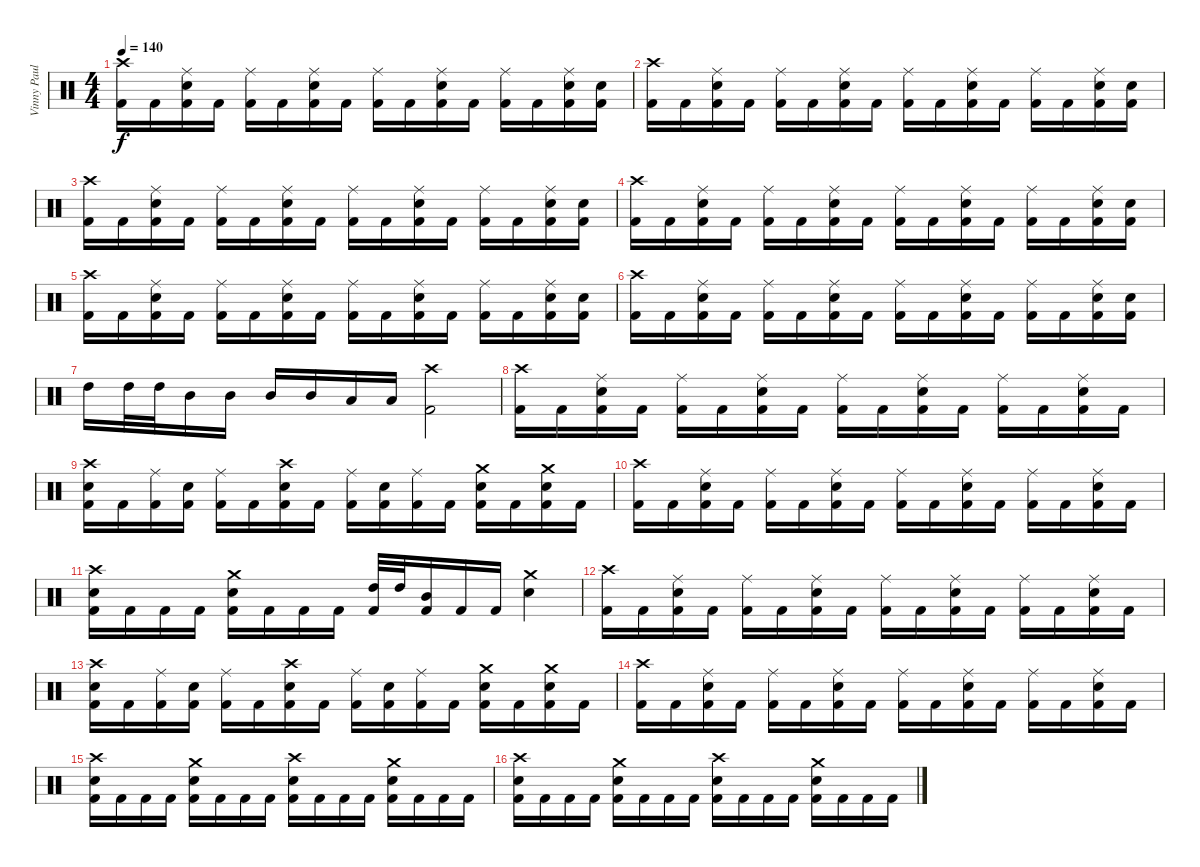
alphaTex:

\track ("Vinny Paul" "Vinny Paul") {instrument percussion}
\staff {score}
\articulation defaults
\ts (4 4)
\tempo 140
\clef neutral
\ks c
("Crash high (hit)" "Kick (hit) 2").16{dy f} "Kick (hit) 2".16 ("Ride (middle)" "Snare (hit) 2" "Kick (hit) 2").16 "Kick (hit) 2".16 ("Ride (middle)" "Kick (hit) 2").16 "Kick (hit) 2".16 ("Ride (middle)" "Snare (hit) 2" "Kick (hit) 2").16 "Kick (hit) 2".16 ("Ride (middle)" "Kick (hit) 2").16 "Kick (hit) 2".16 ("Ride (middle)" "Snare (hit) 2" "Kick (hit) 2").16 "Kick (hit) 2".16 ("Ride (middle)" "Kick (hit) 2").16 "Kick (hit) 2".16 ("Ride (middle)" "Snare (hit) 2" "Kick (hit) 2").16 ("Snare (hit) 2" "Kick (hit) 2").16 |
("Crash high (hit)" "Kick (hit) 2").16 "Kick (hit) 2".16 ("Ride (middle)" "Snare (hit) 2" "Kick (hit) 2").16 "Kick (hit) 2".16 ("Ride (middle)" "Kick (hit) 2").16 "Kick (hit) 2".16 ("Ride (middle)" "Snare (hit) 2" "Kick (hit) 2").16 "Kick (hit) 2".16 ("Ride (middle)" "Kick (hit) 2").16 "Kick (hit) 2".16 ("Ride (middle)" "Snare (hit) 2" "Kick (hit) 2").16 "Kick (hit) 2".16 ("Ride (middle)" "Kick (hit) 2").16 "Kick (hit) 2".16 ("Ride (middle)" "Snare (hit) 2" "Kick (hit) 2").16 ("Snare (hit) 2" "Kick (hit) 2").16 |
("Crash high (hit)" "Kick (hit) 2").16 "Kick (hit) 2".16 ("Ride (middle)" "Snare (hit) 2" "Kick (hit) 2").16 "Kick (hit) 2".16 ("Ride (middle)" "Kick (hit) 2").16 "Kick (hit) 2".16 ("Ride (middle)" "Snare (hit) 2" "Kick (hit) 2").16 "Kick (hit) 2".16 ("Ride (middle)" "Kick (hit) 2").16 "Kick (hit) 2".16 ("Ride (middle)" "Snare (hit) 2" "Kick (hit) 2").16 "Kick (hit) 2".16 ("Ride (middle)" "Kick (hit) 2").16 "Kick (hit) 2".16 ("Ride (middle)" "Snare (hit) 2" "Kick (hit) 2").16 ("Snare (hit) 2" "Kick (hit) 2").16 |
("Crash high (hit)" "Kick (hit) 2").16 "Kick (hit) 2".16 ("Ride (middle)" "Snare (hit) 2" "Kick (hit) 2").16 "Kick (hit) 2".16 ("Ride (middle)" "Kick (hit) 2").16 "Kick (hit) 2".16 ("Ride (middle)" "Snare (hit) 2" "Kick (hit) 2").16 "Kick (hit) 2".16 ("Ride (middle)" "Kick (hit) 2").16 "Kick (hit) 2".16 ("Ride (middle)" "Snare (hit) 2" "Kick (hit) 2").16 "Kick (hit) 2".16 ("Ride (middle)" "Kick (hit) 2").16 "Kick (hit) 2".16 ("Ride (middle)" "Snare (hit) 2" "Kick (hit) 2").16 ("Snare (hit) 2" "Kick (hit) 2").16 |
("Crash high (hit)" "Kick (hit) 2").16 "Kick (hit) 2".16 ("Ride (middle)" "Snare (hit) 2" "Kick (hit) 2").16 "Kick (hit) 2".16 ("Ride (middle)" "Kick (hit) 2").16 "Kick (hit) 2".16 ("Ride (middle)" "Snare (hit) 2" "Kick (hit) 2").16 "Kick (hit) 2".16 ("Ride (middle)" "Kick (hit) 2").16 "Kick (hit) 2".16 ("Ride (middle)" "Snare (hit) 2" "Kick (hit) 2").16 "Kick (hit) 2".16 ("Ride (middle)" "Kick (hit) 2").16 "Kick (hit) 2".16 ("Ride (middle)" "Snare (hit) 2" "Kick (hit) 2").16 ("Snare (hit) 2" "Kick (hit) 2").16 |
("Crash high (hit)" "Kick (hit) 2").16 "Kick (hit) 2".16 ("Ride (middle)" "Snare (hit) 2" "Kick (hit) 2").16 "Kick (hit) 2".16 ("Ride (middle)" "Kick (hit) 2").16 "Kick (hit) 2".16 ("Ride (middle)" "Snare (hit) 2" "Kick (hit) 2").16 "Kick (hit) 2".16 ("Ride (middle)" "Kick (hit) 2").16 "Kick (hit) 2".16 ("Ride (middle)" "Snare (hit) 2" "Kick (hit) 2").16 "Kick (hit) 2".16 ("Ride (middle)" "Kick (hit) 2").16 "Kick (hit) 2".16 ("Ride (middle)" "Snare (hit) 2" "Kick (hit) 2").16 ("Snare (hit) 2" "Kick (hit) 2").16 |
"High Tom (hit)".16 "High Tom (hit)".32 "High Tom (hit)".32 "Mid Tom (hit)".16 "Mid Tom (hit)".16 "Mid Tom (hit)".16 "Mid Tom (hit)".16 "Low Tom (hit)".16 "Low Tom (hit)".16 ("Crash high (hit)" "Kick (hit) 2").2 |
("Crash high (hit)" "Kick (hit) 2").16 "Kick (hit) 2".16 ("Ride (middle)" "Snare (hit) 2" "Kick (hit) 2").16 "Kick (hit) 2".16 ("Ride (middle)" "Kick (hit) 2").16 "Kick (hit) 2".16 ("Ride (middle)" "Snare (hit) 2" "Kick (hit) 2").16 "Kick (hit) 2".16 ("Ride (middle)" "Kick (hit) 2").16 "Kick (hit) 2".16 ("Ride (middle)" "Snare (hit) 2" "Kick (hit) 2").16 "Kick (hit) 2".16 ("Ride (middle)" "Kick (hit) 2").16 "Kick (hit) 2".16 ("Ride (middle)" "Snare (hit) 2" "Kick (hit) 2").16 "Kick (hit) 2".16 |
("Crash high (hit)" "Snare (hit) 2" "Kick (hit) 2").16 "Kick (hit) 2".16 ("Ride (middle)" "Kick (hit) 2").16 ("Snare (hit) 2" "Kick (hit) 2").16 ("Ride (middle)" "Kick (hit) 2").16 "Kick (hit) 2".16 ("Crash high (hit)" "Snare (hit) 2" "Kick (hit) 2").16 "Kick (hit) 2".16 ("Ride (middle)" "Kick (hit) 2").16 ("Snare (hit) 2" "Kick (hit) 2").16 ("Ride (middle)" "Kick (hit) 2").16 "Kick (hit) 2".16 ("Crash medium (hit)" "Snare (hit) 2" "Kick (hit) 2").16 "Kick (hit) 2".16 ("Crash medium (hit)" "Snare (hit) 2" "Kick (hit) 2").16 "Kick (hit) 2".16 |
("Crash high (hit)" "Kick (hit) 2").16 "Kick (hit) 2".16 ("Ride (middle)" "Snare (hit) 2" "Kick (hit) 2").16 "Kick (hit) 2".16 ("Ride (middle)" "Kick (hit) 2").16 "Kick (hit) 2".16 ("Ride (middle)" "Snare (hit) 2" "Kick (hit) 2").16 "Kick (hit) 2".16 ("Ride (middle)" "Kick (hit) 2").16 "Kick (hit) 2".16 ("Ride (middle)" "Snare (hit) 2" "Kick (hit) 2").16 "Kick (hit) 2".16 ("Ride (middle)" "Kick (hit) 2").16 "Kick (hit) 2".16 ("Ride (middle)" "Snare (hit) 2" "Kick (hit) 2").16 "Kick (hit) 2".16 |
("Crash high (hit)" "Snare (hit) 2" "Kick (hit) 2").16 "Kick (hit) 2".16 "Kick (hit) 2".16 "Kick (hit) 2".16 ("Crash medium (hit)" "Snare (hit) 2" "Kick (hit) 2").16 "Kick (hit) 2".16 "Kick (hit) 2".16 "Kick (hit) 2".16 ("High Tom (hit)" "Kick (hit) 2").32 "High Tom (hit)".32 ("Mid Tom (hit)" "Kick (hit) 2").16 "Kick (hit) 2".16 "Kick (hit) 2".16 ("Crash medium (hit)" "Snare (hit) 2").4 |
("Crash high (hit)" "Kick (hit) 2").16 "Kick (hit) 2".16 ("Ride (middle)" "Snare (hit) 2" "Kick (hit) 2").16 "Kick (hit) 2".16 ("Ride (middle)" "Kick (hit) 2").16 "Kick (hit) 2".16 ("Ride (middle)" "Snare (hit) 2" "Kick (hit) 2").16 "Kick (hit) 2".16 ("Ride (middle)" "Kick (hit) 2").16 "Kick (hit) 2".16 ("Ride (middle)" "Snare (hit) 2" "Kick (hit) 2").16 "Kick (hit) 2".16 ("Ride (middle)" "Kick (hit) 2").16 "Kick (hit) 2".16 ("Ride (middle)" "Snare (hit) 2" "Kick (hit) 2").16 "Kick (hit) 2".16 |
("Crash high (hit)" "Snare (hit) 2" "Kick (hit) 2").16 "Kick (hit) 2".16 ("Ride (middle)" "Kick (hit) 2").16 ("Snare (hit) 2" "Kick (hit) 2").16 ("Ride (middle)" "Kick (hit) 2").16 "Kick (hit) 2".16 ("Crash high (hit)" "Snare (hit) 2" "Kick (hit) 2").16 "Kick (hit) 2".16 ("Ride (middle)" "Kick (hit) 2").16 ("Snare (hit) 2" "Kick (hit) 2").16 ("Ride (middle)" "Kick (hit) 2").16 "Kick (hit) 2".16 ("Crash medium (hit)" "Snare (hit) 2" "Kick (hit) 2").16 "Kick (hit) 2".16 ("Crash medium (hit)" "Snare (hit) 2" "Kick (hit) 2").16 "Kick (hit) 2".16 |
("Crash high (hit)" "Kick (hit) 2").16 "Kick (hit) 2".16 ("Ride (middle)" "Snare (hit) 2" "Kick (hit) 2").16 "Kick (hit) 2".16 ("Ride (middle)" "Kick (hit) 2").16 "Kick (hit) 2".16 ("Ride (middle)" "Snare (hit) 2" "Kick (hit) 2").16 "Kick (hit) 2".16 ("Ride (middle)" "Kick (hit) 2").16 "Kick (hit) 2".16 ("Ride (middle)" "Snare (hit) 2" "Kick (hit) 2").16 "Kick (hit) 2".16 ("Ride (middle)" "Kick (hit) 2").16 "Kick (hit) 2".16 ("Ride (middle)" "Snare (hit) 2" "Kick (hit) 2").16 "Kick (hit) 2".16 |
("Crash high (hit)" "Snare (hit) 2" "Kick (hit) 2").16 "Kick (hit) 2".16 "Kick (hit) 2".16 "Kick (hit) 2".16 ("Crash medium (hit)" "Snare (hit) 2" "Kick (hit) 2").16 "Kick (hit) 2".16 "Kick (hit) 2".16 "Kick (hit) 2".16 ("Crash high (hit)" "Snare (hit) 2" "Kick (hit) 2").16 "Kick (hit) 2".16 "Kick (hit) 2".16 "Kick (hit) 2".16 ("Crash medium (hit)" "Snare (hit) 2" "Kick (hit) 2").16 "Kick (hit) 2".16 "Kick (hit) 2".16 "Kick (hit) 2".16 |
("Crash high (hit)" "Snare (hit) 2" "Kick (hit) 2").16 "Kick (hit) 2".16 "Kick (hit) 2".16 "Kick (hit) 2".16 ("Crash medium (hit)" "Snare (hit) 2" "Kick (hit) 2").16 "Kick (hit) 2".16 "Kick (hit) 2".16 "Kick (hit) 2".16 ("Crash high (hit)" "Snare (hit) 2" "Kick (hit) 2").16 "Kick (hit) 2".16 "Kick (hit) 2".16 "Kick (hit) 2".16 ("Crash medium (hit)" "Snare (hit) 2" "Kick (hit) 2").16 "Kick (hit) 2".16 "Kick (hit) 2".16 "Kick (hit) 2".16
